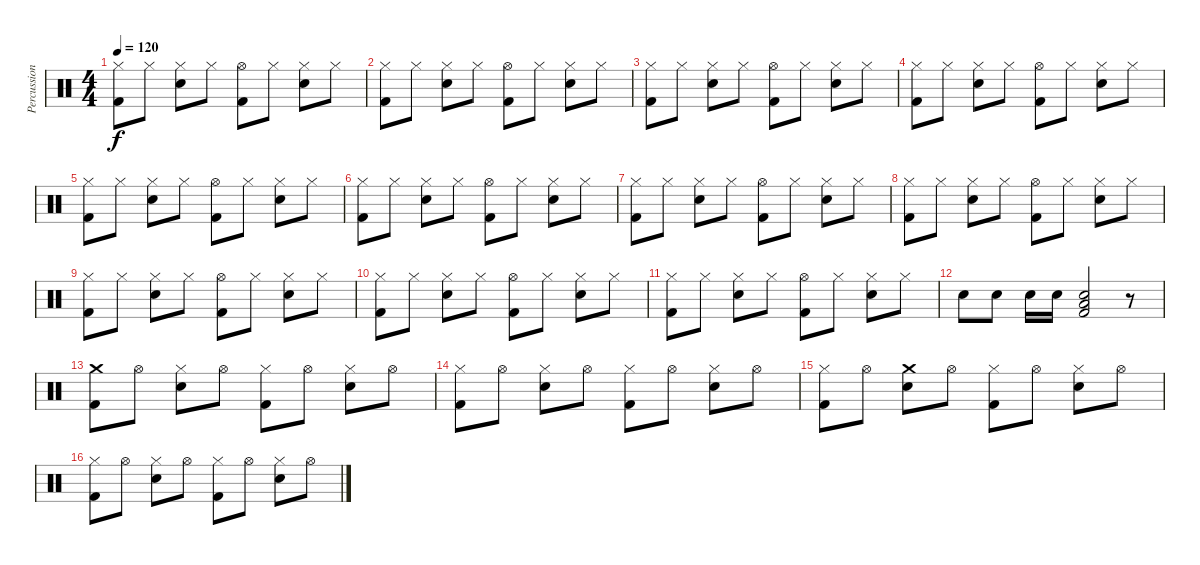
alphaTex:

\track ("Percussion" "Percussion") {instrument percussion}
\staff {score}
\articulation defaults
\ts (4 4)
\tempo 120
\clef neutral
\ks c
("Hi-Hat (closed)" "Kick (hit) 2").8{dy f} "Hi-Hat (closed)".8 ("Hi-Hat (closed)" "Snare (hit) 2").8 "Hi-Hat (closed)".8 ("Hi-Hat (open)" "Kick (hit) 2").8 "Hi-Hat (closed)".8 ("Hi-Hat (closed)" "Snare (hit) 2").8 "Hi-Hat (closed)".8 |
("Hi-Hat (closed)" "Kick (hit) 2").8 "Hi-Hat (closed)".8 ("Hi-Hat (closed)" "Snare (hit) 2").8 "Hi-Hat (closed)".8 ("Hi-Hat (open)" "Kick (hit) 2").8 "Hi-Hat (closed)".8 ("Hi-Hat (closed)" "Snare (hit) 2").8 "Hi-Hat (closed)".8 |
("Hi-Hat (closed)" "Kick (hit) 2").8 "Hi-Hat (closed)".8 ("Hi-Hat (closed)" "Snare (hit) 2").8 "Hi-Hat (closed)".8 ("Hi-Hat (open)" "Kick (hit) 2").8 "Hi-Hat (closed)".8 ("Hi-Hat (closed)" "Snare (hit) 2").8 "Hi-Hat (closed)".8 |
("Hi-Hat (closed)" "Kick (hit) 2").8 "Hi-Hat (closed)".8 ("Hi-Hat (closed)" "Snare (hit) 2").8 "Hi-Hat (closed)".8 ("Hi-Hat (open)" "Kick (hit) 2").8 "Hi-Hat (closed)".8 ("Hi-Hat (closed)" "Snare (hit) 2").8 "Hi-Hat (closed)".8 |
("Hi-Hat (closed)" "Kick (hit) 2").8 "Hi-Hat (closed)".8 ("Hi-Hat (closed)" "Snare (hit) 2").8 "Hi-Hat (closed)".8 ("Hi-Hat (open)" "Kick (hit) 2").8 "Hi-Hat (closed)".8 ("Hi-Hat (closed)" "Snare (hit) 2").8 "Hi-Hat (closed)".8 |
("Hi-Hat (closed)" "Kick (hit) 2").8 "Hi-Hat (closed)".8 ("Hi-Hat (closed)" "Snare (hit) 2").8 "Hi-Hat (closed)".8 ("Hi-Hat (open)" "Kick (hit) 2").8 "Hi-Hat (closed)".8 ("Hi-Hat (closed)" "Snare (hit) 2").8 "Hi-Hat (closed)".8 |
("Hi-Hat (closed)" "Kick (hit) 2").8 "Hi-Hat (closed)".8 ("Hi-Hat (closed)" "Snare (hit) 2").8 "Hi-Hat (closed)".8 ("Hi-Hat (open)" "Kick (hit) 2").8 "Hi-Hat (closed)".8 ("Hi-Hat (closed)" "Snare (hit) 2").8 "Hi-Hat (closed)".8 |
("Hi-Hat (closed)" "Kick (hit) 2").8 "Hi-Hat (closed)".8 ("Hi-Hat (closed)" "Snare (hit) 2").8 "Hi-Hat (closed)".8 ("Hi-Hat (open)" "Kick (hit) 2").8 "Hi-Hat (closed)".8 ("Hi-Hat (closed)" "Snare (hit) 2").8 "Hi-Hat (closed)".8 |
("Hi-Hat (closed)" "Kick (hit) 2").8 "Hi-Hat (closed)".8 ("Hi-Hat (closed)" "Snare (hit) 2").8 "Hi-Hat (closed)".8 ("Hi-Hat (open)" "Kick (hit) 2").8 "Hi-Hat (closed)".8 ("Hi-Hat (closed)" "Snare (hit) 2").8 "Hi-Hat (closed)".8 |
("Hi-Hat (closed)" "Kick (hit) 2").8 "Hi-Hat (closed)".8 ("Hi-Hat (closed)" "Snare (hit) 2").8 "Hi-Hat (closed)".8 ("Hi-Hat (open)" "Kick (hit) 2").8 "Hi-Hat (closed)".8 ("Hi-Hat (closed)" "Snare (hit) 2").8 "Hi-Hat (closed)".8 |
("Hi-Hat (closed)" "Kick (hit) 2").8 "Hi-Hat (closed)".8 ("Hi-Hat (closed)" "Snare (hit) 2").8 "Hi-Hat (closed)".8 ("Hi-Hat (open)" "Kick (hit) 2").8 "Hi-Hat (closed)".8 ("Hi-Hat (closed)" "Snare (hit) 2").8 "Hi-Hat (closed)".8 |
"Snare (hit) 2".8 "Snare (hit) 2".8 "Snare (hit) 2".16 "Snare (hit) 2".16 ("Kick (hit) 2" "Low Floor Tom (hit)" "Snare (hit) 2").2 r.8 |
("Crash medium (hit)" "Kick (hit) 2").8 "Hi-Hat (open)".8 ("Hi-Hat (closed)" "Snare (hit) 2").8 "Hi-Hat (open)".8 ("Hi-Hat (closed)" "Kick (hit) 2").8 "Hi-Hat (open)".8 ("Hi-Hat (closed)" "Snare (hit) 2").8 "Hi-Hat (open)".8 |
("Hi-Hat (closed)" "Kick (hit) 2").8 "Hi-Hat (open)".8 ("Hi-Hat (closed)" "Snare (hit) 2").8 "Hi-Hat (open)".8 ("Hi-Hat (closed)" "Kick (hit) 2").8 "Hi-Hat (open)".8 ("Hi-Hat (closed)" "Snare (hit) 2").8 "Hi-Hat (open)".8 |
("Hi-Hat (closed)" "Kick (hit) 2").8 "Hi-Hat (open)".8 ("Crash medium (hit)" "Snare (hit) 2").8 "Hi-Hat (open)".8 ("Hi-Hat (closed)" "Kick (hit) 2").8 "Hi-Hat (open)".8 ("Hi-Hat (closed)" "Snare (hit) 2").8 "Hi-Hat (open)".8 |
("Hi-Hat (closed)" "Kick (hit) 2").8 "Hi-Hat (open)".8 ("Hi-Hat (closed)" "Snare (hit) 2").8 "Hi-Hat (open)".8 ("Hi-Hat (closed)" "Kick (hit) 2").8 "Hi-Hat (open)".8 ("Hi-Hat (closed)" "Snare (hit) 2").8 "Hi-Hat (open)".8
